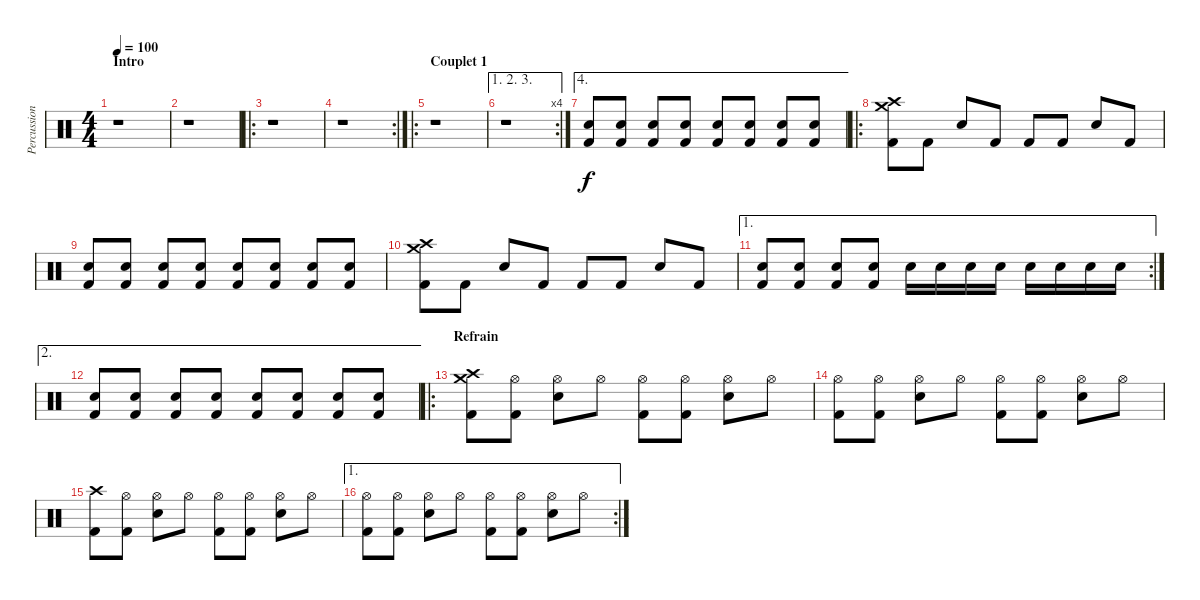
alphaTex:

\track ("Percussions" "Percussion") {instrument percussion}
\staff {score}
\articulation defaults
\ts (4 4)
\section ("" "Intro")
\tempo 100
\clef neutral
\ks c
r.1{dy f} |
r.1 |
\ro
r.1 |
\rc 2
r.1 |
\ro
\section ("" "Couplet 1 ")
r.1 |
\ae (1 2 3)
\rc 4
r.1{volume 5} |
\ae 4
("Snare (hit) 2" "Kick (hit) 2").8{volume 13} ("Snare (hit) 2" "Kick (hit) 2").8 ("Snare (hit) 2" "Kick (hit) 2").8 ("Snare (hit) 2" "Kick (hit) 2").8 ("Snare (hit) 2" "Kick (hit) 2").8 ("Snare (hit) 2" "Kick (hit) 2").8 ("Snare (hit) 2" "Kick (hit) 2").8 ("Snare (hit) 2" "Kick (hit) 2").8 |
\ro
("Crash high (hit)" "Crash medium (hit)" "Kick (hit) 2").8 "Kick (hit) 2".8 "Electric Snare (hit)".8 "Kick (hit) 2".8 "Kick (hit) 2".8 "Kick (hit) 2".8 "Electric Snare (hit)".8 "Kick (hit) 2".8 |
("Snare (hit) 2" "Kick (hit) 2").8 ("Snare (hit) 2" "Kick (hit) 2").8 ("Snare (hit) 2" "Kick (hit) 2").8 ("Snare (hit) 2" "Kick (hit) 2").8 ("Snare (hit) 2" "Kick (hit) 2").8 ("Snare (hit) 2" "Kick (hit) 2").8 ("Snare (hit) 2" "Kick (hit) 2").8 ("Snare (hit) 2" "Kick (hit) 2").8 |
("Crash high (hit)" "Crash medium (hit)" "Kick (hit) 2").8 "Kick (hit) 2".8 "Electric Snare (hit)".8 "Kick (hit) 2".8 "Kick (hit) 2".8 "Kick (hit) 2".8 "Electric Snare (hit)".8 "Kick (hit) 2".8 |
\ae 1
\rc 2
("Snare (hit) 2" "Kick (hit) 2").8 ("Snare (hit) 2" "Kick (hit) 2").8 ("Snare (hit) 2" "Kick (hit) 2").8 ("Snare (hit) 2" "Kick (hit) 2").8 "Electric Snare (hit)".16 "Electric Snare (hit)".16 "Electric Snare (hit)".16 "Electric Snare (hit)".16 "Electric Snare (hit)".16 "Electric Snare (hit)".16 "Electric Snare (hit)".16 "Electric Snare (hit)".16 |
\ae 2
("Snare (hit) 2" "Kick (hit) 2").8 ("Snare (hit) 2" "Kick (hit) 2").8 ("Snare (hit) 2" "Kick (hit) 2").8 ("Snare (hit) 2" "Kick (hit) 2").8 ("Snare (hit) 2" "Kick (hit) 2").8 ("Snare (hit) 2" "Kick (hit) 2").8 ("Snare (hit) 2" "Kick (hit) 2").8 ("Snare (hit) 2" "Kick (hit) 2").8 |
\ro
\section ("" "Refrain")
("Crash high (hit)" "Crash medium (hit)" "Kick (hit) 2").8 ("Hi-Hat (open)" "Kick (hit) 2").8 ("Hi-Hat (open)" "Electric Snare (hit)").8 "Hi-Hat (open)".8 ("Hi-Hat (open)" "Kick (hit) 2").8 ("Hi-Hat (open)" "Kick (hit) 2").8 ("Hi-Hat (open)" "Electric Snare (hit)").8 "Hi-Hat (open)".8 |
("Hi-Hat (open)" "Kick (hit) 2").8 ("Hi-Hat (open)" "Kick (hit) 2").8 ("Hi-Hat (open)" "Electric Snare (hit)").8 "Hi-Hat (open)".8 ("Hi-Hat (open)" "Kick (hit) 2").8 ("Hi-Hat (open)" "Kick (hit) 2").8 ("Hi-Hat (open)" "Electric Snare (hit)").8 "Hi-Hat (open)".8 |
("Crash high (hit)" "Kick (hit) 2").8 ("Hi-Hat (open)" "Kick (hit) 2").8 ("Hi-Hat (open)" "Electric Snare (hit)").8 "Hi-Hat (open)".8 ("Hi-Hat (open)" "Kick (hit) 2").8 ("Hi-Hat (open)" "Kick (hit) 2").8 ("Hi-Hat (open)" "Electric Snare (hit)").8 "Hi-Hat (open)".8 |
\ae 1
\rc 2
("Hi-Hat (open)" "Kick (hit) 2").8 ("Hi-Hat (open)" "Kick (hit) 2").8 ("Hi-Hat (open)" "Electric Snare (hit)").8 "Hi-Hat (open)".8 ("Hi-Hat (open)" "Kick (hit) 2").8 ("Hi-Hat (open)" "Kick (hit) 2").8 ("Hi-Hat (open)" "Electric Snare (hit)").8 "Hi-Hat (open)".8
